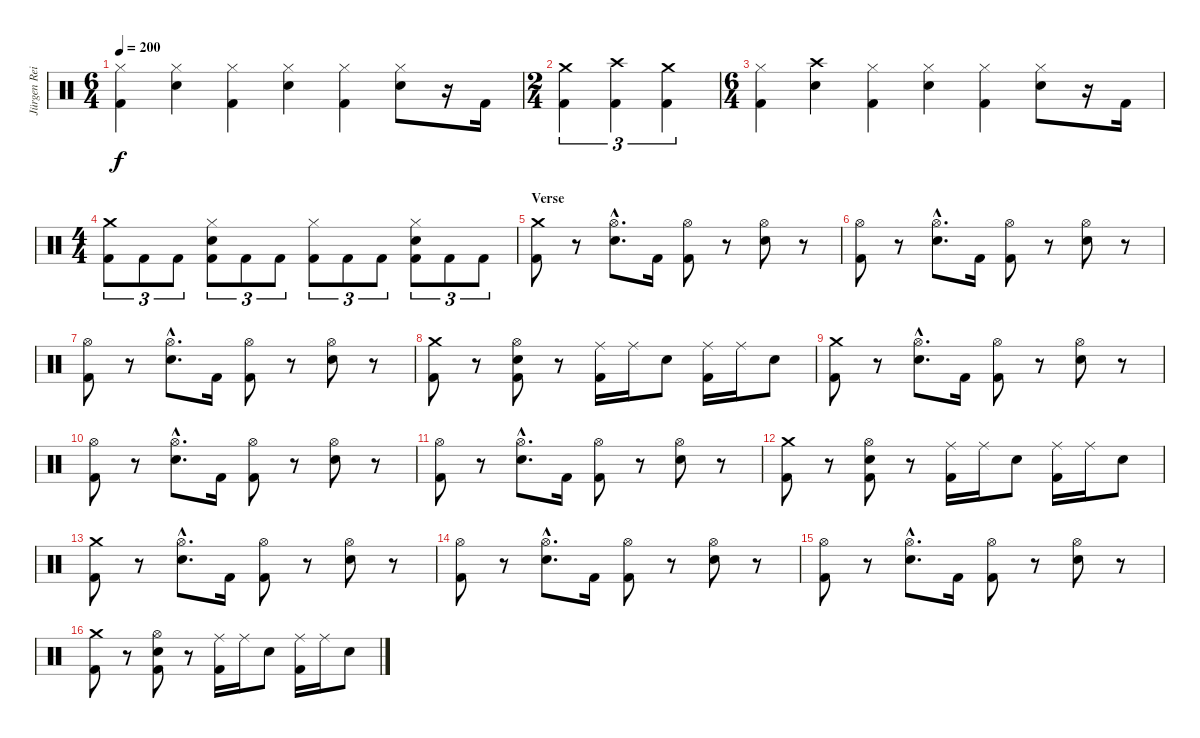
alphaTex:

\track ("Jürgen Reil" "Jürgen Rei") {instrument percussion}
\staff {score}
\articulation defaults
\ts (6 4)
\tempo 200
\clef neutral
\ks c
("Hi-Hat (closed)" "Kick (hit) 2").4{dy f} ("Hi-Hat (closed)" "Electric Snare (hit)").4 ("Hi-Hat (closed)" "Kick (hit) 2").4 ("Hi-Hat (closed)" "Electric Snare (hit)").4 ("Hi-Hat (closed)" "Kick (hit) 2").4 ("Hi-Hat (closed)" "Electric Snare (hit)").8 r.16 "Kick (hit) 2".16 |
\ts (2 4)
("Crash medium (hit)" "Kick (hit) 2").4{tu (3 2)} ("Crash high (hit)" "Kick (hit) 2").4{tu (3 2)} ("Crash medium (hit)" "Kick (hit) 2").4{tu (3 2)} |
\ts (6 4)
("Hi-Hat (closed)" "Kick (hit) 2").4 ("Crash high (hit)" "Electric Snare (hit)").4 ("Hi-Hat (closed)" "Kick (hit) 2").4 ("Hi-Hat (closed)" "Electric Snare (hit)").4 ("Hi-Hat (closed)" "Kick (hit) 2").4 ("Hi-Hat (closed)" "Electric Snare (hit)").8 r.16 "Kick (hit) 2".16 |
\ts (4 4)
("Crash medium (hit)" "Kick (hit) 2").8{tu (3 2)} "Kick (hit) 2".8{tu (3 2)} "Kick (hit) 2".8{tu (3 2)} ("Hi-Hat (closed)" "Electric Snare (hit)" "Kick (hit) 2").8{tu (3 2)} "Kick (hit) 2".8{tu (3 2)} "Kick (hit) 2".8{tu (3 2)} ("Hi-Hat (closed)" "Kick (hit) 2").8{tu (3 2)} "Kick (hit) 2".8{tu (3 2)} "Kick (hit) 2".8{tu (3 2)} ("Hi-Hat (closed)" "Electric Snare (hit)" "Kick (hit) 2").8{tu (3 2)} "Kick (hit) 2".8{tu (3 2)} "Kick (hit) 2".8{tu (3 2)} |
\section ("" "Verse")
("Crash medium (hit)" "Kick (hit) 2").8 r.8 ("Hi-Hat (open)"{hac} "Electric Snare (hit)"{hac}).8{d} "Kick (hit) 2".16 ("Hi-Hat (open)" "Kick (hit) 2").8 r.8 ("Hi-Hat (open)" "Electric Snare (hit)").8 r.8 |
("Hi-Hat (open)" "Kick (hit) 2").8 r.8 ("Hi-Hat (open)"{hac} "Electric Snare (hit)"{hac}).8{d} "Kick (hit) 2".16 ("Hi-Hat (open)" "Kick (hit) 2").8 r.8 ("Hi-Hat (open)" "Electric Snare (hit)").8 r.8 |
("Hi-Hat (open)" "Kick (hit) 2").8 r.8 ("Hi-Hat (open)"{hac} "Electric Snare (hit)"{hac}).8{d} "Kick (hit) 2".16 ("Hi-Hat (open)" "Kick (hit) 2").8 r.8 ("Hi-Hat (open)" "Electric Snare (hit)").8 r.8 |
("Crash medium (hit)" "Kick (hit) 2").8 r.8 ("Hi-Hat (open)" "Electric Snare (hit)" "Kick (hit) 2").8 r.8 ("Ride (middle)" "Kick (hit) 2").16 "Ride (middle)".16 "Electric Snare (hit)".8 ("Ride (middle)" "Kick (hit) 2").16 "Ride (middle)".16 "Electric Snare (hit)".8 |
("Crash medium (hit)" "Kick (hit) 2").8 r.8 ("Hi-Hat (open)"{hac} "Electric Snare (hit)"{hac}).8{d} "Kick (hit) 2".16 ("Hi-Hat (open)" "Kick (hit) 2").8 r.8 ("Hi-Hat (open)" "Electric Snare (hit)").8 r.8 |
("Hi-Hat (open)" "Kick (hit) 2").8 r.8 ("Hi-Hat (open)"{hac} "Electric Snare (hit)"{hac}).8{d} "Kick (hit) 2".16 ("Hi-Hat (open)" "Kick (hit) 2").8 r.8 ("Hi-Hat (open)" "Electric Snare (hit)").8 r.8 |
("Hi-Hat (open)" "Kick (hit) 2").8 r.8 ("Hi-Hat (open)"{hac} "Electric Snare (hit)"{hac}).8{d} "Kick (hit) 2".16 ("Hi-Hat (open)" "Kick (hit) 2").8 r.8 ("Hi-Hat (open)" "Electric Snare (hit)").8 r.8 |
("Crash medium (hit)" "Kick (hit) 2").8 r.8 ("Hi-Hat (open)" "Electric Snare (hit)" "Kick (hit) 2").8 r.8 ("Ride (middle)" "Kick (hit) 2").16 "Ride (middle)".16 "Electric Snare (hit)".8 ("Ride (middle)" "Kick (hit) 2").16 "Ride (middle)".16 "Electric Snare (hit)".8 |
("Crash medium (hit)" "Kick (hit) 2").8 r.8 ("Hi-Hat (open)"{hac} "Electric Snare (hit)"{hac}).8{d} "Kick (hit) 2".16 ("Hi-Hat (open)" "Kick (hit) 2").8 r.8 ("Hi-Hat (open)" "Electric Snare (hit)").8 r.8 |
("Hi-Hat (open)" "Kick (hit) 2").8 r.8 ("Hi-Hat (open)"{hac} "Electric Snare (hit)"{hac}).8{d} "Kick (hit) 2".16 ("Hi-Hat (open)" "Kick (hit) 2").8 r.8 ("Hi-Hat (open)" "Electric Snare (hit)").8 r.8 |
("Hi-Hat (open)" "Kick (hit) 2").8 r.8 ("Hi-Hat (open)"{hac} "Electric Snare (hit)"{hac}).8{d} "Kick (hit) 2".16 ("Hi-Hat (open)" "Kick (hit) 2").8 r.8 ("Hi-Hat (open)" "Electric Snare (hit)").8 r.8 |
("Crash medium (hit)" "Kick (hit) 2").8 r.8 ("Hi-Hat (open)" "Electric Snare (hit)" "Kick (hit) 2").8 r.8 ("Ride (middle)" "Kick (hit) 2").16 "Ride (middle)".16 "Electric Snare (hit)".8 ("Ride (middle)" "Kick (hit) 2").16 "Ride (middle)".16 "Electric Snare (hit)".8
